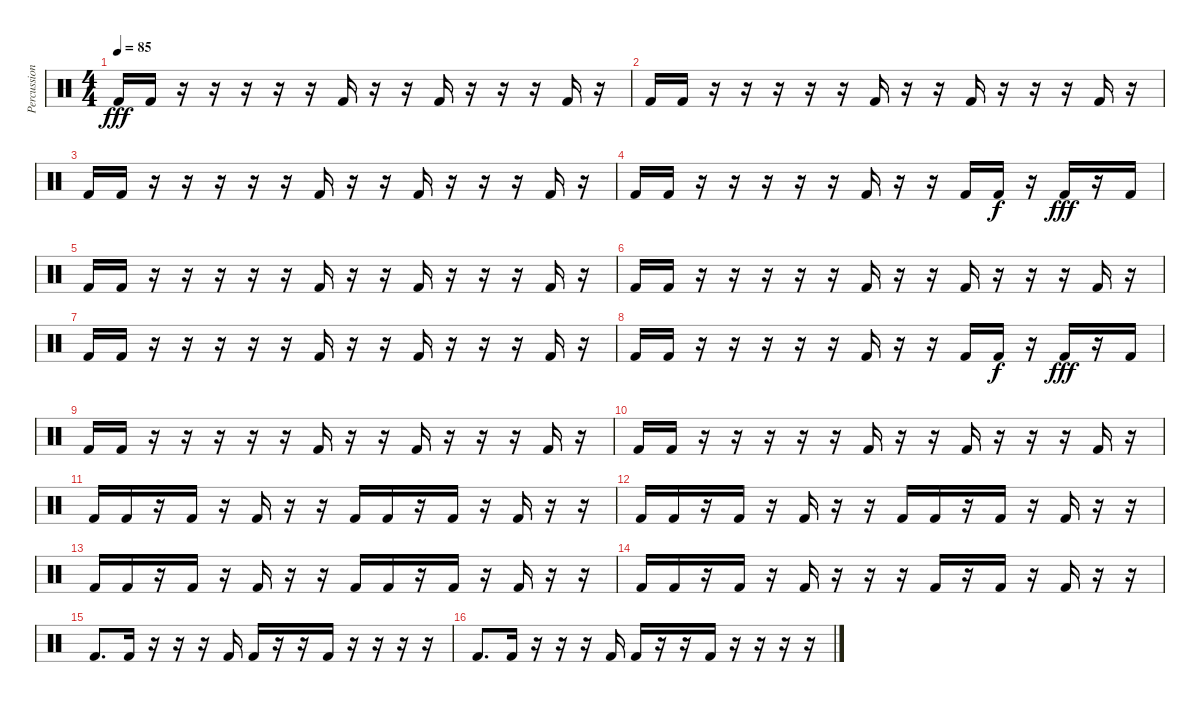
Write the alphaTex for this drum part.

\track ("Percussion" "Percussion") {instrument percussion}
\staff {score}
\articulation defaults
\ts (4 4)
\tempo 85
\clef neutral
\ks c "Kick (hit) 2".16{dy fff} "Kick (hit) 2".16
r.16 r.16 r.16 r.16 r.16 "Kick (hit) 2".16 r.16 r.16 "Kick (hit) 2".16 r.16 r.16 r.16 "Kick (hit) 2".16 r.16 |
"Kick (hit) 2".16 "Kick (hit) 2".16 r.16 r.16 r.16 r.16 r.16 "Kick (hit) 2".16 r.16 r.16 "Kick (hit) 2".16 r.16 r.16 r.16 "Kick (hit) 2".16 r.16 |
"Kick (hit) 2".16 "Kick (hit) 2".16 r.16 r.16 r.16 r.16 r.16 "Kick (hit) 2".16 r.16 r.16 "Kick (hit) 2".16 r.16 r.16 r.16 "Kick (hit) 2".16 r.16 |
"Kick (hit) 2".16 "Kick (hit) 2".16 r.16 r.16 r.16 r.16 r.16 "Kick (hit) 2".16 r.16 r.16 "Kick (hit) 2".16 "Kick (hit) 2".16{dy f} r.16 "Kick (hit) 2".16{dy fff} r.16 "Kick (hit) 2".16 |
"Kick (hit) 2".16 "Kick (hit) 2".16 r.16 r.16 r.16 r.16 r.16 "Kick (hit) 2".16 r.16 r.16 "Kick (hit) 2".16 r.16 r.16 r.16 "Kick (hit) 2".16 r.16 |
"Kick (hit) 2".16 "Kick (hit) 2".16 r.16 r.16 r.16 r.16 r.16 "Kick (hit) 2".16 r.16 r.16 "Kick (hit) 2".16 r.16 r.16 r.16 "Kick (hit) 2".16 r.16 |
"Kick (hit) 2".16 "Kick (hit) 2".16 r.16 r.16 r.16 r.16 r.16 "Kick (hit) 2".16 r.16 r.16 "Kick (hit) 2".16 r.16 r.16 r.16 "Kick (hit) 2".16 r.16 |
"Kick (hit) 2".16 "Kick (hit) 2".16 r.16 r.16 r.16 r.16 r.16 "Kick (hit) 2".16 r.16 r.16 "Kick (hit) 2".16 "Kick (hit) 2".16{dy f} r.16 "Kick (hit) 2".16{dy fff} r.16 "Kick (hit) 2".16 |
"Kick (hit) 2".16 "Kick (hit) 2".16 r.16 r.16 r.16 r.16 r.16 "Kick (hit) 2".16 r.16 r.16 "Kick (hit) 2".16 r.16 r.16 r.16 "Kick (hit) 2".16 r.16 |
"Kick (hit) 2".16 "Kick (hit) 2".16 r.16 r.16 r.16 r.16 r.16 "Kick (hit) 2".16 r.16 r.16 "Kick (hit) 2".16 r.16 r.16 r.16 "Kick (hit) 2".16 r.16 |
"Kick (hit) 2".16 "Kick (hit) 2".16 r.16 "Kick (hit) 2".16 r.16 "Kick (hit) 2".16 r.16 r.16 "Kick (hit) 2".16 "Kick (hit) 2".16 r.16 "Kick (hit) 2".16 r.16 "Kick (hit) 2".16 r.16 r.16 |
"Kick (hit) 2".16 "Kick (hit) 2".16 r.16 "Kick (hit) 2".16 r.16 "Kick (hit) 2".16 r.16 r.16 "Kick (hit) 2".16 "Kick (hit) 2".16 r.16 "Kick (hit) 2".16 r.16 "Kick (hit) 2".16 r.16 r.16 |
"Kick (hit) 2".16 "Kick (hit) 2".16 r.16 "Kick (hit) 2".16 r.16 "Kick (hit) 2".16 r.16 r.16 "Kick (hit) 2".16 "Kick (hit) 2".16 r.16 "Kick (hit) 2".16 r.16 "Kick (hit) 2".16 r.16 r.16 |
"Kick (hit) 2".16 "Kick (hit) 2".16 r.16 "Kick (hit) 2".16 r.16 "Kick (hit) 2".16 r.16 r.16 r.16 "Kick (hit) 2".16 r.16 "Kick (hit) 2".16 r.16 "Kick (hit) 2".16 r.16 r.16 |
"Kick (hit) 2".8{d} "Kick (hit) 2".16 r.16 r.16 r.16 "Kick (hit) 2".16 "Kick (hit) 2".16 r.16 r.16 "Kick (hit) 2".16 r.16 r.16 r.16 r.16 |
"Kick (hit) 2".8{d} "Kick (hit) 2".16 r.16 r.16 r.16 "Kick (hit) 2".16 "Kick (hit) 2".16 r.16 r.16 "Kick (hit) 2".16 r.16 r.16 r.16 r.16
